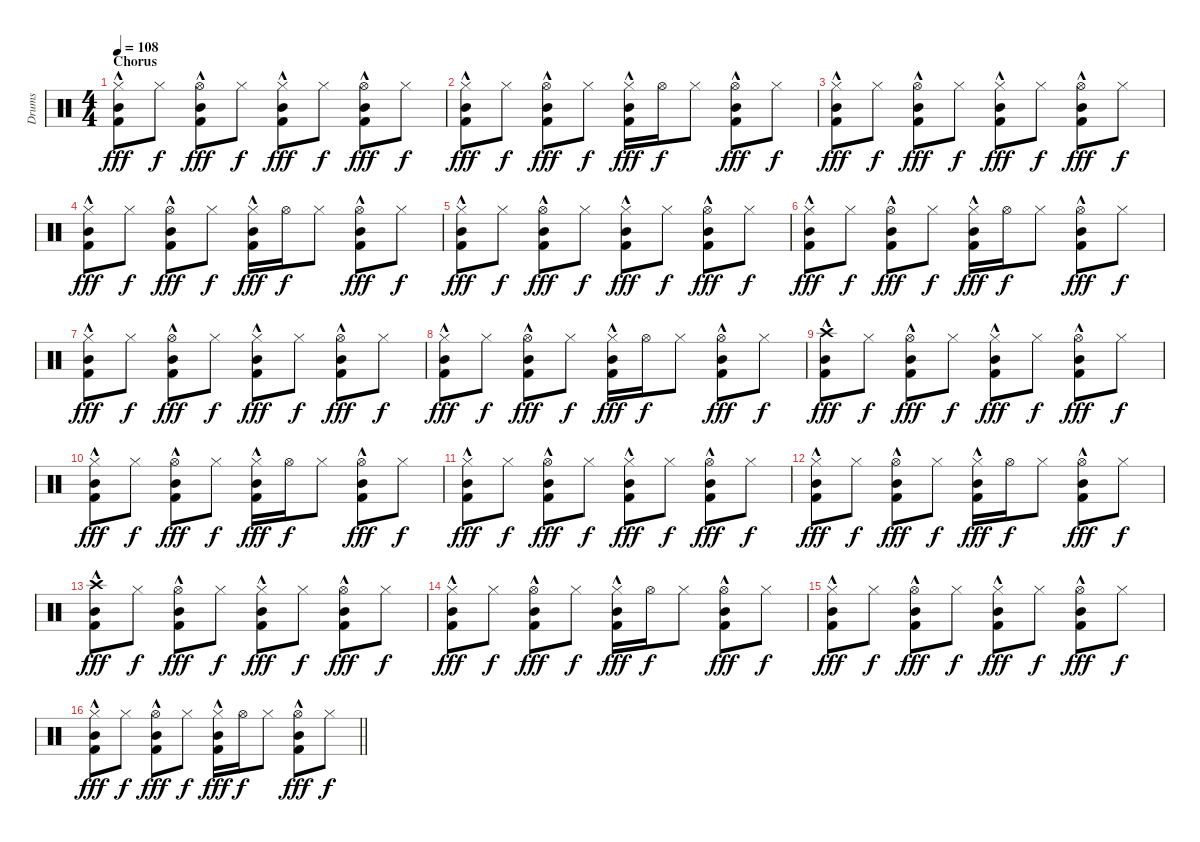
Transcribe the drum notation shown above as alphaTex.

\track ("Drums" "Drums") {instrument percussion}
\staff {score}
\articulation defaults
\ts (4 4)
\section ("" "Chorus")
\tempo 108
\clef neutral
\ks c
("Hi-Hat (closed)" "Mid Tom (hit)" "Kick (hit) 2"{hac}).8{dy fff} "Hi-Hat (closed)".8{dy f} ("Hi-Hat (open)" "Mid Tom (hit)" "Kick (hit) 2"{hac}).8{dy fff} "Hi-Hat (closed)".8{dy f} ("Hi-Hat (closed)" "Mid Tom (hit)" "Kick (hit) 2"{hac}).8{dy fff} "Hi-Hat (closed)".8{dy f} ("Hi-Hat (open)" "Mid Tom (hit)" "Kick (hit) 2"{hac}).8{dy fff} "Hi-Hat (closed)".8{dy f} |
("Hi-Hat (closed)" "Mid Tom (hit)" "Kick (hit) 2"{hac}).8{dy fff} "Hi-Hat (closed)".8{dy f} ("Hi-Hat (open)" "Mid Tom (hit)" "Kick (hit) 2"{hac}).8{dy fff} "Hi-Hat (closed)".8{dy f} ("Hi-Hat (closed)" "Mid Tom (hit)" "Kick (hit) 2"{hac}).16{dy fff} "Hi-Hat (open)".16{dy f} "Hi-Hat (closed)".8 ("Hi-Hat (open)" "Mid Tom (hit)" "Kick (hit) 2"{hac}).8{dy fff} "Hi-Hat (closed)".8{dy f} |
("Hi-Hat (closed)" "Mid Tom (hit)" "Kick (hit) 2"{hac}).8{dy fff} "Hi-Hat (closed)".8{dy f} ("Hi-Hat (open)" "Mid Tom (hit)" "Kick (hit) 2"{hac}).8{dy fff} "Hi-Hat (closed)".8{dy f} ("Hi-Hat (closed)" "Mid Tom (hit)" "Kick (hit) 2"{hac}).8{dy fff} "Hi-Hat (closed)".8{dy f} ("Hi-Hat (open)" "Mid Tom (hit)" "Kick (hit) 2"{hac}).8{dy fff} "Hi-Hat (closed)".8{dy f} |
("Hi-Hat (closed)" "Mid Tom (hit)" "Kick (hit) 2"{hac}).8{dy fff} "Hi-Hat (closed)".8{dy f} ("Hi-Hat (open)" "Mid Tom (hit)" "Kick (hit) 2"{hac}).8{dy fff} "Hi-Hat (closed)".8{dy f} ("Hi-Hat (closed)" "Mid Tom (hit)" "Kick (hit) 2"{hac}).16{dy fff} "Hi-Hat (open)".16{dy f} "Hi-Hat (closed)".8 ("Hi-Hat (open)" "Mid Tom (hit)" "Kick (hit) 2"{hac}).8{dy fff} "Hi-Hat (closed)".8{dy f} |
("Hi-Hat (closed)" "Mid Tom (hit)" "Kick (hit) 2"{hac}).8{dy fff} "Hi-Hat (closed)".8{dy f} ("Hi-Hat (open)" "Mid Tom (hit)" "Kick (hit) 2"{hac}).8{dy fff} "Hi-Hat (closed)".8{dy f} ("Hi-Hat (closed)" "Mid Tom (hit)" "Kick (hit) 2"{hac}).8{dy fff} "Hi-Hat (closed)".8{dy f} ("Hi-Hat (open)" "Mid Tom (hit)" "Kick (hit) 2"{hac}).8{dy fff} "Hi-Hat (closed)".8{dy f} |
("Hi-Hat (closed)" "Mid Tom (hit)" "Kick (hit) 2"{hac}).8{dy fff} "Hi-Hat (closed)".8{dy f} ("Hi-Hat (open)" "Mid Tom (hit)" "Kick (hit) 2"{hac}).8{dy fff} "Hi-Hat (closed)".8{dy f} ("Hi-Hat (closed)" "Mid Tom (hit)" "Kick (hit) 2"{hac}).16{dy fff} "Hi-Hat (open)".16{dy f} "Hi-Hat (closed)".8 ("Hi-Hat (open)" "Mid Tom (hit)" "Kick (hit) 2"{hac}).8{dy fff} "Hi-Hat (closed)".8{dy f} |
("Hi-Hat (closed)" "Mid Tom (hit)" "Kick (hit) 2"{hac}).8{dy fff} "Hi-Hat (closed)".8{dy f} ("Hi-Hat (open)" "Mid Tom (hit)" "Kick (hit) 2"{hac}).8{dy fff} "Hi-Hat (closed)".8{dy f} ("Hi-Hat (closed)" "Mid Tom (hit)" "Kick (hit) 2"{hac}).8{dy fff} "Hi-Hat (closed)".8{dy f} ("Hi-Hat (open)" "Mid Tom (hit)" "Kick (hit) 2"{hac}).8{dy fff} "Hi-Hat (closed)".8{dy f} |
("Hi-Hat (closed)" "Mid Tom (hit)" "Kick (hit) 2"{hac}).8{dy fff} "Hi-Hat (closed)".8{dy f} ("Hi-Hat (open)" "Mid Tom (hit)" "Kick (hit) 2"{hac}).8{dy fff} "Hi-Hat (closed)".8{dy f} ("Hi-Hat (closed)" "Mid Tom (hit)" "Kick (hit) 2"{hac}).16{dy fff} "Hi-Hat (open)".16{dy f} "Hi-Hat (closed)".8 ("Hi-Hat (open)" "Mid Tom (hit)" "Kick (hit) 2"{hac}).8{dy fff} "Hi-Hat (closed)".8{dy f} |
("Crash high (hit)" "Mid Tom (hit)" "Kick (hit) 2"{hac}).8{dy fff} "Hi-Hat (closed)".8{dy f} ("Hi-Hat (open)" "Mid Tom (hit)" "Kick (hit) 2"{hac}).8{dy fff} "Hi-Hat (closed)".8{dy f} ("Hi-Hat (closed)" "Mid Tom (hit)" "Kick (hit) 2"{hac}).8{dy fff} "Hi-Hat (closed)".8{dy f} ("Hi-Hat (open)" "Mid Tom (hit)" "Kick (hit) 2"{hac}).8{dy fff} "Hi-Hat (closed)".8{dy f} |
("Hi-Hat (closed)" "Mid Tom (hit)" "Kick (hit) 2"{hac}).8{dy fff} "Hi-Hat (closed)".8{dy f} ("Hi-Hat (open)" "Mid Tom (hit)" "Kick (hit) 2"{hac}).8{dy fff} "Hi-Hat (closed)".8{dy f} ("Hi-Hat (closed)" "Mid Tom (hit)" "Kick (hit) 2"{hac}).16{dy fff} "Hi-Hat (open)".16{dy f} "Hi-Hat (closed)".8 ("Hi-Hat (open)" "Mid Tom (hit)" "Kick (hit) 2"{hac}).8{dy fff} "Hi-Hat (closed)".8{dy f} |
("Hi-Hat (closed)" "Mid Tom (hit)" "Kick (hit) 2"{hac}).8{dy fff} "Hi-Hat (closed)".8{dy f} ("Hi-Hat (open)" "Mid Tom (hit)" "Kick (hit) 2"{hac}).8{dy fff} "Hi-Hat (closed)".8{dy f} ("Hi-Hat (closed)" "Mid Tom (hit)" "Kick (hit) 2"{hac}).8{dy fff} "Hi-Hat (closed)".8{dy f} ("Hi-Hat (open)" "Mid Tom (hit)" "Kick (hit) 2"{hac}).8{dy fff} "Hi-Hat (closed)".8{dy f} |
("Hi-Hat (closed)" "Mid Tom (hit)" "Kick (hit) 2"{hac}).8{dy fff} "Hi-Hat (closed)".8{dy f} ("Hi-Hat (open)" "Mid Tom (hit)" "Kick (hit) 2"{hac}).8{dy fff} "Hi-Hat (closed)".8{dy f} ("Hi-Hat (closed)" "Mid Tom (hit)" "Kick (hit) 2"{hac}).16{dy fff} "Hi-Hat (open)".16{dy f} "Hi-Hat (closed)".8 ("Hi-Hat (open)" "Mid Tom (hit)" "Kick (hit) 2"{hac}).8{dy fff} "Hi-Hat (closed)".8{dy f} |
("Crash high (hit)" "Mid Tom (hit)" "Kick (hit) 2"{hac}).8{dy fff} "Hi-Hat (closed)".8{dy f} ("Hi-Hat (open)" "Mid Tom (hit)" "Kick (hit) 2"{hac}).8{dy fff} "Hi-Hat (closed)".8{dy f} ("Hi-Hat (closed)" "Mid Tom (hit)" "Kick (hit) 2"{hac}).8{dy fff} "Hi-Hat (closed)".8{dy f} ("Hi-Hat (open)" "Mid Tom (hit)" "Kick (hit) 2"{hac}).8{dy fff} "Hi-Hat (closed)".8{dy f} |
("Hi-Hat (closed)" "Mid Tom (hit)" "Kick (hit) 2"{hac}).8{dy fff} "Hi-Hat (closed)".8{dy f} ("Hi-Hat (open)" "Mid Tom (hit)" "Kick (hit) 2"{hac}).8{dy fff} "Hi-Hat (closed)".8{dy f} ("Hi-Hat (closed)" "Mid Tom (hit)" "Kick (hit) 2"{hac}).16{dy fff} "Hi-Hat (open)".16{dy f} "Hi-Hat (closed)".8 ("Hi-Hat (open)" "Mid Tom (hit)" "Kick (hit) 2"{hac}).8{dy fff} "Hi-Hat (closed)".8{dy f} |
("Hi-Hat (closed)" "Mid Tom (hit)" "Kick (hit) 2"{hac}).8{dy fff} "Hi-Hat (closed)".8{dy f} ("Hi-Hat (open)" "Mid Tom (hit)" "Kick (hit) 2"{hac}).8{dy fff} "Hi-Hat (closed)".8{dy f} ("Hi-Hat (closed)" "Mid Tom (hit)" "Kick (hit) 2"{hac}).8{dy fff} "Hi-Hat (closed)".8{dy f} ("Hi-Hat (open)" "Mid Tom (hit)" "Kick (hit) 2"{hac}).8{dy fff} "Hi-Hat (closed)".8{dy f} |
\barLineRight lightlight
("Hi-Hat (closed)" "Mid Tom (hit)" "Kick (hit) 2"{hac}).8{dy fff} "Hi-Hat (closed)".8{dy f} ("Hi-Hat (open)" "Mid Tom (hit)" "Kick (hit) 2"{hac}).8{dy fff} "Hi-Hat (closed)".8{dy f} ("Hi-Hat (closed)" "Mid Tom (hit)" "Kick (hit) 2"{hac}).16{dy fff} "Hi-Hat (open)".16{dy f} "Hi-Hat (closed)".8 ("Hi-Hat (open)" "Mid Tom (hit)" "Kick (hit) 2"{hac}).8{dy fff} "Hi-Hat (closed)".8{dy f}
